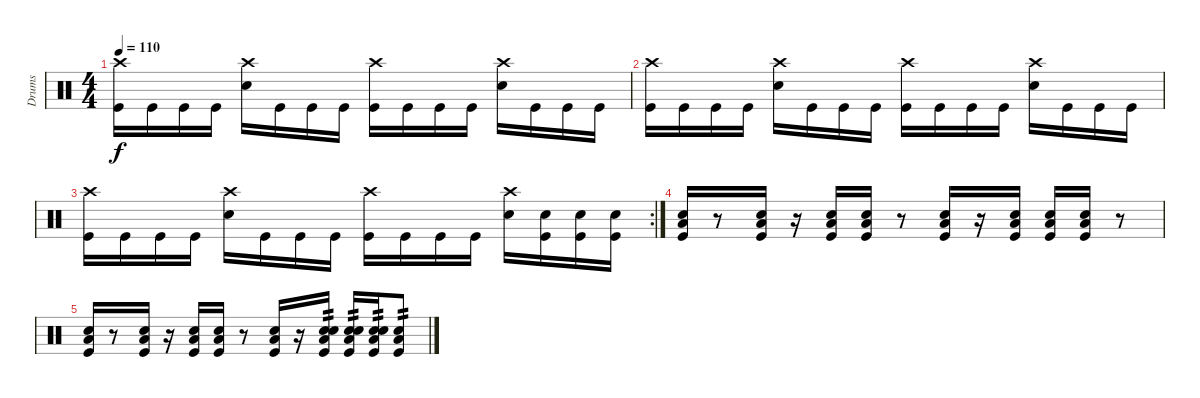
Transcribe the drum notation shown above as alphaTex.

\track ("Drums" "Drums") {instrument percussion}
\staff {score}
\articulation defaults
\ts (4 4)
\tempo 110
\clef neutral
\ks c
("Crash high (hit)" "Kick (hit)").16{dy f} "Kick (hit)".16 "Kick (hit)".16 "Kick (hit)".16 ("Crash high (hit)" "Snare (hit) 2").16 "Kick (hit)".16 "Kick (hit)".16 "Kick (hit)".16 ("Crash high (hit)" "Kick (hit)").16 "Kick (hit)".16 "Kick (hit)".16 "Kick (hit)".16 ("Crash high (hit)" "Snare (hit) 2").16 "Kick (hit)".16 "Kick (hit)".16 "Kick (hit)".16 |
("Crash high (hit)" "Kick (hit)").16 "Kick (hit)".16 "Kick (hit)".16 "Kick (hit)".16 ("Crash high (hit)" "Snare (hit) 2").16 "Kick (hit)".16 "Kick (hit)".16 "Kick (hit)".16 ("Crash high (hit)" "Kick (hit)").16 "Kick (hit)".16 "Kick (hit)".16 "Kick (hit)".16 ("Crash high (hit)" "Snare (hit) 2").16 "Kick (hit)".16 "Kick (hit)".16 "Kick (hit)".16 |
\rc 2
("Crash high (hit)" "Kick (hit)").16 "Kick (hit)".16 "Kick (hit)".16 "Kick (hit)".16 ("Crash high (hit)" "Snare (hit) 2").16 "Kick (hit)".16 "Kick (hit)".16 "Kick (hit)".16 ("Crash high (hit)" "Kick (hit)").16 "Kick (hit)".16 "Kick (hit)".16 "Kick (hit)".16 ("Crash high (hit)" "Snare (hit) 2").16 ("Snare (hit) 2" "Kick (hit)").16 ("Snare (hit) 2" "Kick (hit)").16 ("Snare (hit) 2" "Kick (hit)").16 |
("Low Floor Tom (hit)" "Snare (hit) 2" "Kick (hit)").16 r.8 ("Low Floor Tom (hit)" "Snare (hit) 2" "Kick (hit)").16 r.16 ("Low Floor Tom (hit)" "Snare (hit) 2" "Kick (hit)").16 ("Low Floor Tom (hit)" "Snare (hit) 2" "Kick (hit)").16 r.8 ("Low Floor Tom (hit)" "Snare (hit) 2" "Kick (hit)").16 r.16 ("Low Floor Tom (hit)" "Snare (hit) 2" "Kick (hit)").16 ("Low Floor Tom (hit)" "Snare (hit) 2" "Kick (hit)").16 ("Low Floor Tom (hit)" "Snare (hit) 2" "Kick (hit)").16 r.8 |
("Low Floor Tom (hit)" "Snare (hit) 2" "Kick (hit)").16 r.8 ("Low Floor Tom (hit)" "Snare (hit) 2" "Kick (hit)").16 r.16 ("Low Floor Tom (hit)" "Snare (hit) 2" "Kick (hit)").16 ("Low Floor Tom (hit)" "Snare (hit) 2" "Kick (hit)").16 r.8 ("Low Floor Tom (hit)" "Snare (hit) 2" "Kick (hit)").16 r.16 ("Snare (hit) 2" "Low Floor Tom (hit)" "Snare (hit) 2" "Kick (hit)").16{tp 2} ("Snare (hit) 2" "Low Floor Tom (hit)" "Snare (hit) 2" "Kick (hit)").16{tp 2} ("Snare (hit) 2" "Low Floor Tom (hit)" "Snare (hit) 2" "Kick (hit)").16{tp 2} ("Low Floor Tom (hit)" "Electric Snare (hit)" "Kick (hit)").8{tp 2}
